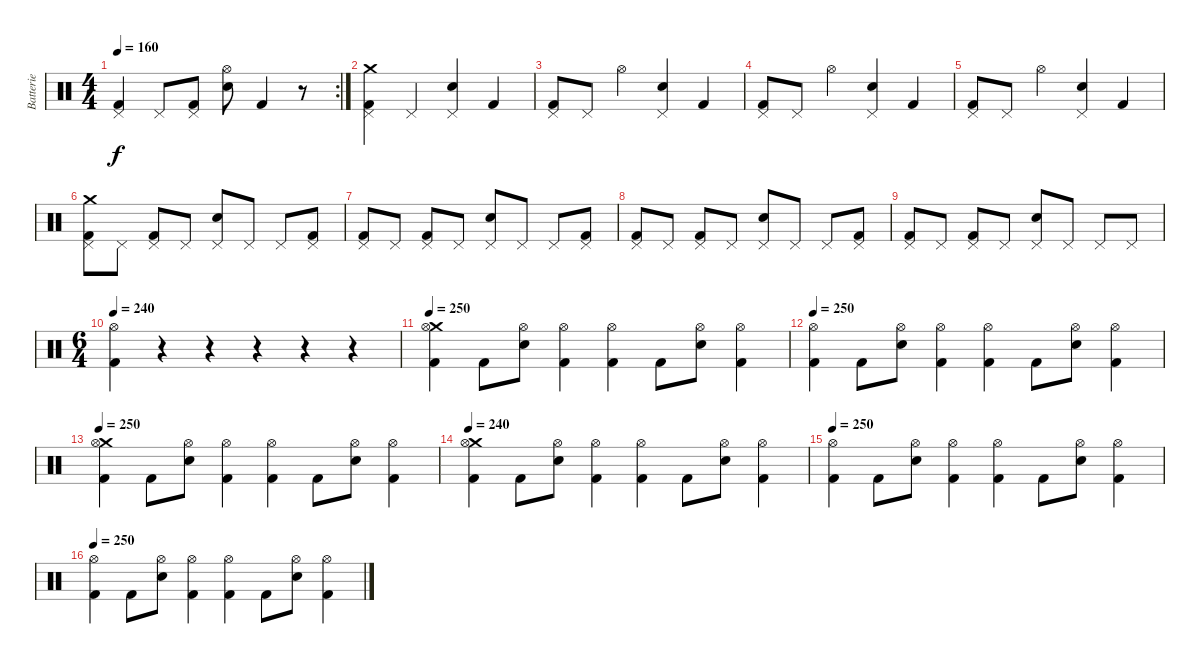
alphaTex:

\track ("Batterie" "Batterie") {instrument percussion}
\staff {score}
\articulation defaults
\rc 2
\ts (4 4)
\tempo 160
\clef neutral
\ks c
("Pedal Hi-Hat (hit)" "Kick (hit) 2").4{dy f} "Pedal Hi-Hat (hit)".8 ("Pedal Hi-Hat (hit)" "Kick (hit) 2").8 ("Hi-Hat (open)" "Electric Snare (hit)").8 "Kick (hit) 2".4 r.8 |
("Crash medium (hit)" "Pedal Hi-Hat (hit)" "Kick (hit) 2").4 "Pedal Hi-Hat (hit)".4 ("Pedal Hi-Hat (hit)" "Electric Snare (hit)").4 "Kick (hit) 2".4 |
("Pedal Hi-Hat (hit)" "Kick (hit) 2").8 "Pedal Hi-Hat (hit)".8 "Hi-Hat (open)".4 ("Pedal Hi-Hat (hit)" "Electric Snare (hit)").4 "Kick (hit) 2".4 |
("Pedal Hi-Hat (hit)" "Kick (hit) 2").8 "Pedal Hi-Hat (hit)".8 "Hi-Hat (open)".4 ("Pedal Hi-Hat (hit)" "Electric Snare (hit)").4 "Kick (hit) 2".4 |
("Pedal Hi-Hat (hit)" "Kick (hit) 2").8 "Pedal Hi-Hat (hit)".8 "Hi-Hat (open)".4 ("Pedal Hi-Hat (hit)" "Electric Snare (hit)").4 "Kick (hit) 2".4 |
("Crash medium (hit)" "Pedal Hi-Hat (hit)" "Kick (hit) 2").8 "Pedal Hi-Hat (hit)".8 ("Pedal Hi-Hat (hit)" "Kick (hit) 2").8 "Pedal Hi-Hat (hit)".8 ("Pedal Hi-Hat (hit)" "Electric Snare (hit)").8 "Pedal Hi-Hat (hit)".8 "Pedal Hi-Hat (hit)".8 ("Pedal Hi-Hat (hit)" "Kick (hit) 2").8 |
("Pedal Hi-Hat (hit)" "Kick (hit) 2").8 "Pedal Hi-Hat (hit)".8 ("Pedal Hi-Hat (hit)" "Kick (hit) 2").8 "Pedal Hi-Hat (hit)".8 ("Pedal Hi-Hat (hit)" "Electric Snare (hit)").8 "Pedal Hi-Hat (hit)".8 "Pedal Hi-Hat (hit)".8 ("Pedal Hi-Hat (hit)" "Kick (hit) 2").8 |
("Pedal Hi-Hat (hit)" "Kick (hit) 2").8 "Pedal Hi-Hat (hit)".8 ("Pedal Hi-Hat (hit)" "Kick (hit) 2").8 "Pedal Hi-Hat (hit)".8 ("Pedal Hi-Hat (hit)" "Electric Snare (hit)").8 "Pedal Hi-Hat (hit)".8 "Pedal Hi-Hat (hit)".8 ("Pedal Hi-Hat (hit)" "Kick (hit) 2").8 |
("Pedal Hi-Hat (hit)" "Kick (hit) 2").8 "Pedal Hi-Hat (hit)".8 ("Pedal Hi-Hat (hit)" "Kick (hit) 2").8 "Pedal Hi-Hat (hit)".8 ("Pedal Hi-Hat (hit)" "Electric Snare (hit)").8 "Pedal Hi-Hat (hit)".8 "Pedal Hi-Hat (hit)".8 "Pedal Hi-Hat (hit)".8 |
\ts (6 4)
\tempo 250
\tempo 240
("Hi-Hat (open)" "Kick (hit) 2").4 r.4 r.4 r.4 r.4 r.4 |
\tempo 250
("Crash medium (hit)" "Hi-Hat (open)" "Kick (hit) 2").4 "Kick (hit) 2".8 ("Hi-Hat (open)" "Electric Snare (hit)").8 ("Hi-Hat (open)" "Kick (hit) 2").4 ("Hi-Hat (open)" "Kick (hit) 2").4 "Kick (hit) 2".8 ("Hi-Hat (open)" "Electric Snare (hit)").8 ("Hi-Hat (open)" "Kick (hit) 2").4 |
\tempo 250
("Hi-Hat (open)" "Kick (hit) 2").4 "Kick (hit) 2".8 ("Hi-Hat (open)" "Electric Snare (hit)").8 ("Hi-Hat (open)" "Kick (hit) 2").4 ("Hi-Hat (open)" "Kick (hit) 2").4 "Kick (hit) 2".8 ("Hi-Hat (open)" "Electric Snare (hit)").8 ("Hi-Hat (open)" "Kick (hit) 2").4 |
\tempo 250
("Crash medium (hit)" "Hi-Hat (open)" "Kick (hit) 2").4 "Kick (hit) 2".8 ("Hi-Hat (open)" "Electric Snare (hit)").8 ("Hi-Hat (open)" "Kick (hit) 2").4 ("Hi-Hat (open)" "Kick (hit) 2").4 "Kick (hit) 2".8 ("Hi-Hat (open)" "Electric Snare (hit)").8 ("Hi-Hat (open)" "Kick (hit) 2").4 |
\tempo 250
\tempo 240
("Crash medium (hit)" "Hi-Hat (open)" "Kick (hit) 2").4 "Kick (hit) 2".8 ("Hi-Hat (open)" "Electric Snare (hit)").8 ("Hi-Hat (open)" "Kick (hit) 2").4 ("Hi-Hat (open)" "Kick (hit) 2").4 "Kick (hit) 2".8 ("Hi-Hat (open)" "Electric Snare (hit)").8 ("Hi-Hat (open)" "Kick (hit) 2").4 |
\tempo 250
("Hi-Hat (open)" "Kick (hit) 2").4 "Kick (hit) 2".8 ("Hi-Hat (open)" "Electric Snare (hit)").8 ("Hi-Hat (open)" "Kick (hit) 2").4 ("Hi-Hat (open)" "Kick (hit) 2").4 "Kick (hit) 2".8 ("Hi-Hat (open)" "Electric Snare (hit)").8 ("Hi-Hat (open)" "Kick (hit) 2").4 |
\tempo 250
("Hi-Hat (open)" "Kick (hit) 2").4 "Kick (hit) 2".8 ("Hi-Hat (open)" "Electric Snare (hit)").8 ("Hi-Hat (open)" "Kick (hit) 2").4 ("Hi-Hat (open)" "Kick (hit) 2").4 "Kick (hit) 2".8 ("Hi-Hat (open)" "Electric Snare (hit)").8 ("Hi-Hat (open)" "Kick (hit) 2").4
